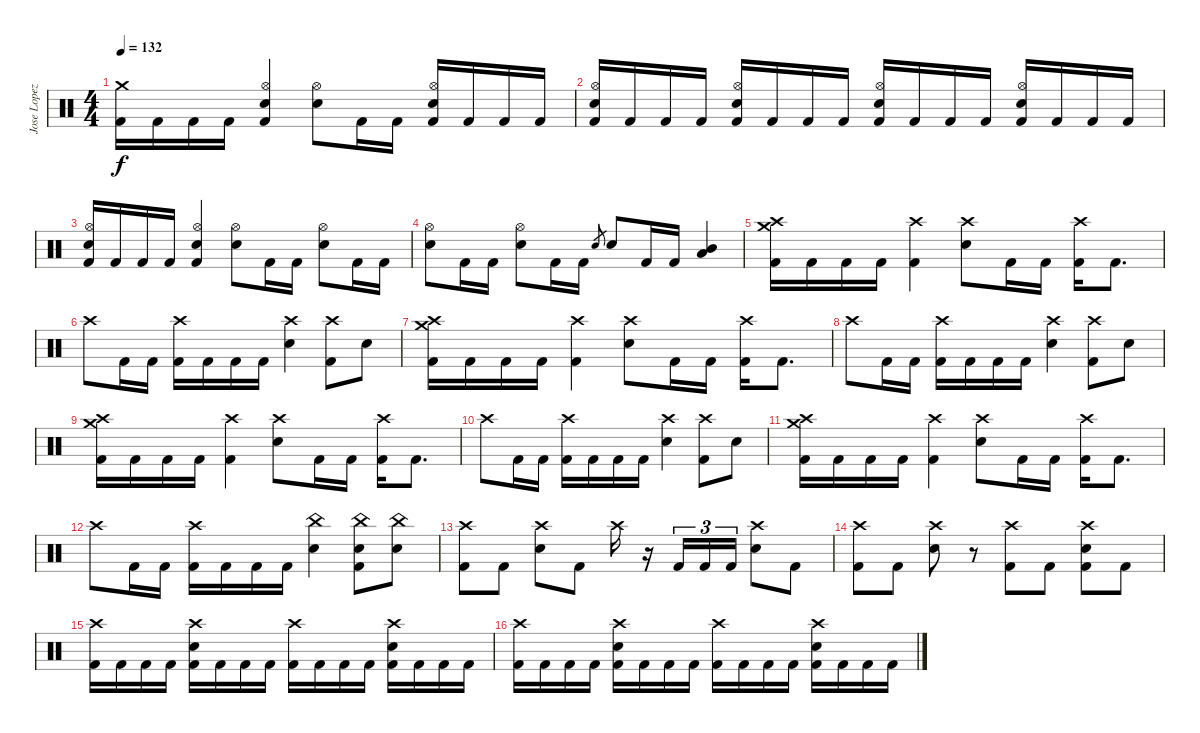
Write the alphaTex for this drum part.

\track ("Jose Lopez" "Jose Lopez") {instrument percussion}
\staff {score}
\articulation defaults
\ts (4 4)
\tempo 132
\clef neutral
\ks c
("Crash medium (hit)" "Kick (hit) 2").16{dy f} "Kick (hit) 2".16 "Kick (hit) 2".16 "Kick (hit) 2".16 ("Hi-Hat (open)" "Electric Snare (hit)" "Kick (hit) 2").4 ("Hi-Hat (open)" "Electric Snare (hit)").8 "Kick (hit) 2".16 "Kick (hit) 2".16 ("Hi-Hat (open)" "Electric Snare (hit)" "Kick (hit) 2").16 "Kick (hit) 2".16 "Kick (hit) 2".16 "Kick (hit) 2".16 |
("Hi-Hat (open)" "Electric Snare (hit)" "Kick (hit) 2").16 "Kick (hit) 2".16 "Kick (hit) 2".16 "Kick (hit) 2".16 ("Hi-Hat (open)" "Electric Snare (hit)" "Kick (hit) 2").16 "Kick (hit) 2".16 "Kick (hit) 2".16 "Kick (hit) 2".16 ("Hi-Hat (open)" "Electric Snare (hit)" "Kick (hit) 2").16 "Kick (hit) 2".16 "Kick (hit) 2".16 "Kick (hit) 2".16 ("Hi-Hat (open)" "Electric Snare (hit)" "Kick (hit) 2").16 "Kick (hit) 2".16 "Kick (hit) 2".16 "Kick (hit) 2".16 |
("Hi-Hat (open)" "Electric Snare (hit)" "Kick (hit) 2").16 "Kick (hit) 2".16 "Kick (hit) 2".16 "Kick (hit) 2".16 ("Hi-Hat (open)" "Electric Snare (hit)" "Kick (hit) 2").4 ("Hi-Hat (open)" "Electric Snare (hit)").8 "Kick (hit) 2".16 "Kick (hit) 2".16 ("Hi-Hat (open)" "Electric Snare (hit)").8 "Kick (hit) 2".16 "Kick (hit) 2".16 |
("Hi-Hat (open)" "Electric Snare (hit)").8 "Kick (hit) 2".16 "Kick (hit) 2".16 ("Hi-Hat (open)" "Electric Snare (hit)").8 "Kick (hit) 2".16 "Kick (hit) 2".16 "Electric Snare (hit)".8{gr} "Electric Snare (hit)".8 "Kick (hit) 2".16 "Kick (hit) 2".16 ("Mid Tom (hit)" "Low Tom (hit)").4 |
("Crash high (hit)" "Crash medium (hit)" "Kick (hit) 2").16 "Kick (hit) 2".16 "Kick (hit) 2".16 "Kick (hit) 2".16 ("Crash high (hit)" "Kick (hit) 2").4 ("Crash high (hit)" "Electric Snare (hit)").8 "Kick (hit) 2".16 "Kick (hit) 2".16 ("Crash high (hit)" "Kick (hit) 2").16 "Kick (hit) 2".8{d} |
"Crash high (hit)".8 "Kick (hit) 2".16 "Kick (hit) 2".16 ("Crash high (hit)" "Kick (hit) 2").16 "Kick (hit) 2".16 "Kick (hit) 2".16 "Kick (hit) 2".16 ("Crash high (hit)" "Electric Snare (hit)").4 ("Crash high (hit)" "Kick (hit) 2").8 "Electric Snare (hit)".8 |
("Crash high (hit)" "Crash medium (hit)" "Kick (hit) 2").16 "Kick (hit) 2".16 "Kick (hit) 2".16 "Kick (hit) 2".16 ("Crash high (hit)" "Kick (hit) 2").4 ("Crash high (hit)" "Electric Snare (hit)").8 "Kick (hit) 2".16 "Kick (hit) 2".16 ("Crash high (hit)" "Kick (hit) 2").16 "Kick (hit) 2".8{d} |
"Crash high (hit)".8 "Kick (hit) 2".16 "Kick (hit) 2".16 ("Crash high (hit)" "Kick (hit) 2").16 "Kick (hit) 2".16 "Kick (hit) 2".16 "Kick (hit) 2".16 ("Crash high (hit)" "Electric Snare (hit)").4 ("Crash high (hit)" "Kick (hit) 2").8 "Electric Snare (hit)".8 |
("Crash high (hit)" "Crash medium (hit)" "Kick (hit) 2").16 "Kick (hit) 2".16 "Kick (hit) 2".16 "Kick (hit) 2".16 ("Crash high (hit)" "Kick (hit) 2").4 ("Crash high (hit)" "Electric Snare (hit)").8 "Kick (hit) 2".16 "Kick (hit) 2".16 ("Crash high (hit)" "Kick (hit) 2").16 "Kick (hit) 2".8{d} |
"Crash high (hit)".8 "Kick (hit) 2".16 "Kick (hit) 2".16 ("Crash high (hit)" "Kick (hit) 2").16 "Kick (hit) 2".16 "Kick (hit) 2".16 "Kick (hit) 2".16 ("Crash high (hit)" "Electric Snare (hit)").4 ("Crash high (hit)" "Kick (hit) 2").8 "Electric Snare (hit)".8 |
("Crash high (hit)" "Crash medium (hit)" "Kick (hit) 2").16 "Kick (hit) 2".16 "Kick (hit) 2".16 "Kick (hit) 2".16 ("Crash high (hit)" "Kick (hit) 2").4 ("Crash high (hit)" "Electric Snare (hit)").8 "Kick (hit) 2".16 "Kick (hit) 2".16 ("Crash high (hit)" "Kick (hit) 2").16 "Kick (hit) 2".8{d} |
"Crash high (hit)".8 "Kick (hit) 2".16 "Kick (hit) 2".16 ("Crash high (hit)" "Kick (hit) 2").16 "Kick (hit) 2".16 "Kick (hit) 2".16 "Kick (hit) 2".16 ("China (hit)" "Electric Snare (hit)").4 ("China (hit)" "Electric Snare (hit)" "Kick (hit) 2").8 ("China (hit)" "Electric Snare (hit)").8 |
("Crash high (hit)" "Kick (hit) 2").8 "Kick (hit) 2".8 ("Crash high (hit)" "Electric Snare (hit)").8 "Kick (hit) 2".8 "Crash high (hit)".16 r.16 "Kick (hit) 2".16{tu (3 2)} "Kick (hit) 2".16{tu (3 2)} "Kick (hit) 2".16{tu (3 2)} ("Crash high (hit)" "Electric Snare (hit)").8 "Kick (hit) 2".8 |
("Crash high (hit)" "Kick (hit) 2").8 "Kick (hit) 2".8 ("Crash high (hit)" "Electric Snare (hit)").8 r.8 ("Crash high (hit)" "Kick (hit) 2").8 "Kick (hit) 2".8 ("Crash high (hit)" "Electric Snare (hit)" "Kick (hit) 2").8 "Kick (hit) 2".8 |
("Crash high (hit)" "Kick (hit) 2").16 "Kick (hit) 2".16 "Kick (hit) 2".16 "Kick (hit) 2".16 ("Crash high (hit)" "Electric Snare (hit)" "Kick (hit) 2").16 "Kick (hit) 2".16 "Kick (hit) 2".16 "Kick (hit) 2".16 ("Crash high (hit)" "Kick (hit) 2").16 "Kick (hit) 2".16 "Kick (hit) 2".16 "Kick (hit) 2".16 ("Crash high (hit)" "Electric Snare (hit)" "Kick (hit) 2").16 "Kick (hit) 2".16 "Kick (hit) 2".16 "Kick (hit) 2".16 |
("Crash high (hit)" "Kick (hit) 2").16 "Kick (hit) 2".16 "Kick (hit) 2".16 "Kick (hit) 2".16 ("Crash high (hit)" "Electric Snare (hit)" "Kick (hit) 2").16 "Kick (hit) 2".16 "Kick (hit) 2".16 "Kick (hit) 2".16 ("Crash high (hit)" "Kick (hit) 2").16 "Kick (hit) 2".16 "Kick (hit) 2".16 "Kick (hit) 2".16 ("Crash high (hit)" "Electric Snare (hit)" "Kick (hit) 2").16 "Kick (hit) 2".16 "Kick (hit) 2".16 "Kick (hit) 2".16
